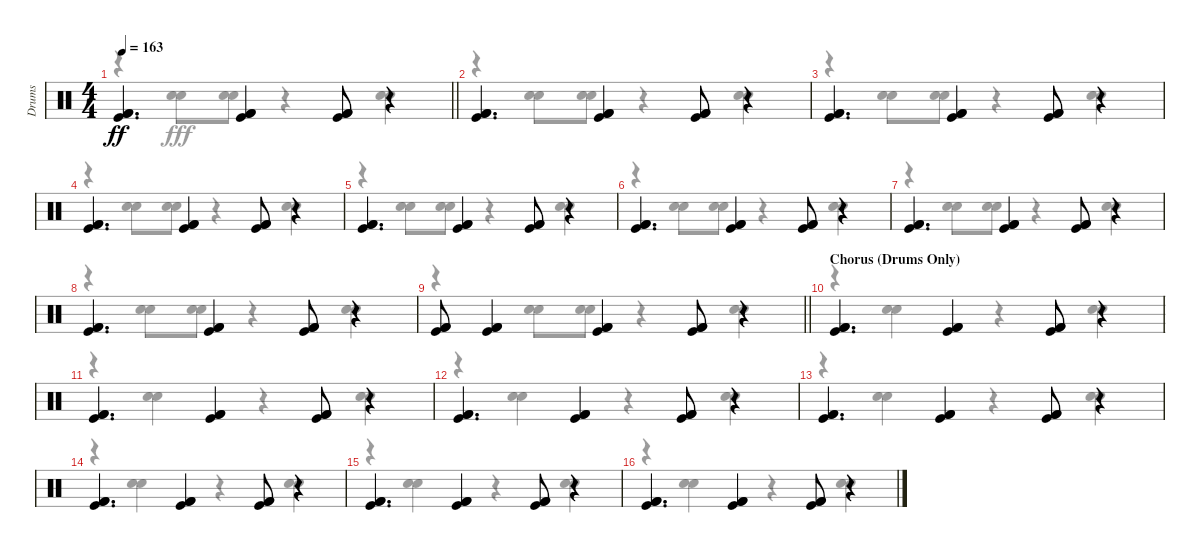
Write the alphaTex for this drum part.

\track ("Drums" "Drums") {instrument percussion}
\staff {score}
\articulation defaults
\voice
\ts (4 4)
\tempo 163
\clef neutral
\barLineRight lightlight
\ks c
("Kick (hit) 2" "Kick (hit) 2" "Kick (hit)").4{d dy ff} ("Kick (hit) 2" "Kick (hit) 2" "Kick (hit)").4 ("Kick (hit) 2" "Kick (hit) 2" "Kick (hit)").8 r.4 |
("Kick (hit) 2" "Kick (hit) 2" "Kick (hit)").4{d} ("Kick (hit) 2" "Kick (hit) 2" "Kick (hit)").4 ("Kick (hit) 2" "Kick (hit) 2" "Kick (hit)").8 r.4 |
("Kick (hit) 2" "Kick (hit) 2" "Kick (hit)").4{d} ("Kick (hit) 2" "Kick (hit) 2" "Kick (hit)").4 ("Kick (hit) 2" "Kick (hit) 2" "Kick (hit)").8 r.4 |
("Kick (hit) 2" "Kick (hit) 2" "Kick (hit)").4{d} ("Kick (hit) 2" "Kick (hit) 2" "Kick (hit)").4 ("Kick (hit) 2" "Kick (hit) 2" "Kick (hit)").8 r.4 |
("Kick (hit) 2" "Kick (hit) 2" "Kick (hit)").4{d} ("Kick (hit) 2" "Kick (hit) 2" "Kick (hit)").4 ("Kick (hit) 2" "Kick (hit) 2" "Kick (hit)").8 r.4 |
("Kick (hit) 2" "Kick (hit) 2" "Kick (hit)").4{d} ("Kick (hit) 2" "Kick (hit) 2" "Kick (hit)").4 ("Kick (hit) 2" "Kick (hit) 2" "Kick (hit)").8 r.4 |
("Kick (hit) 2" "Kick (hit) 2" "Kick (hit)").4{d} ("Kick (hit) 2" "Kick (hit) 2" "Kick (hit)").4 ("Kick (hit) 2" "Kick (hit) 2" "Kick (hit)").8 r.4 |
("Kick (hit) 2" "Kick (hit) 2" "Kick (hit)").4{d} ("Kick (hit) 2" "Kick (hit) 2" "Kick (hit)").4 ("Kick (hit) 2" "Kick (hit) 2" "Kick (hit)").8 r.4 |
\barLineRight lightlight
("Kick (hit) 2" "Kick (hit) 2" "Kick (hit)").8 ("Kick (hit) 2" "Kick (hit) 2" "Kick (hit)").4 ("Kick (hit) 2" "Kick (hit) 2" "Kick (hit)").4 ("Kick (hit) 2" "Kick (hit) 2" "Kick (hit)").8 r.4 |
\section ("" "Chorus (Drums Only)")
("Kick (hit) 2" "Kick (hit) 2" "Kick (hit)").4{d} ("Kick (hit) 2" "Kick (hit) 2" "Kick (hit)").4 ("Kick (hit) 2" "Kick (hit) 2" "Kick (hit)").8 r.4 |
("Kick (hit) 2" "Kick (hit) 2" "Kick (hit)").4{d} ("Kick (hit) 2" "Kick (hit) 2" "Kick (hit)").4 ("Kick (hit) 2" "Kick (hit) 2" "Kick (hit)").8 r.4 |
("Kick (hit) 2" "Kick (hit) 2" "Kick (hit)").4{d} ("Kick (hit) 2" "Kick (hit) 2" "Kick (hit)").4 ("Kick (hit) 2" "Kick (hit) 2" "Kick (hit)").8 r.4 |
("Kick (hit) 2" "Kick (hit) 2" "Kick (hit)").4{d} ("Kick (hit) 2" "Kick (hit) 2" "Kick (hit)").4 ("Kick (hit) 2" "Kick (hit) 2" "Kick (hit)").8 r.4 |
("Kick (hit) 2" "Kick (hit) 2" "Kick (hit)").4{d} ("Kick (hit) 2" "Kick (hit) 2" "Kick (hit)").4 ("Kick (hit) 2" "Kick (hit) 2" "Kick (hit)").8 r.4 |
("Kick (hit) 2" "Kick (hit) 2" "Kick (hit)").4{d} ("Kick (hit) 2" "Kick (hit) 2" "Kick (hit)").4 ("Kick (hit) 2" "Kick (hit) 2" "Kick (hit)").8 r.4 |
("Kick (hit) 2" "Kick (hit) 2" "Kick (hit)").4{d} ("Kick (hit) 2" "Kick (hit) 2" "Kick (hit)").4 ("Kick (hit) 2" "Kick (hit) 2" "Kick (hit)").8 r.4
\voice
\clef neutral
\ottava regular
\simile none
\barLineRight lightlight
\ks c
r.4{dy fff} ("Hand Clap (hit)" "Hand Clap (hit)").8 ("Hand Clap (hit)" "Hand Clap (hit)").8 r.4 ("Hand Clap (hit)" "Hand Clap (hit)").4 |
r.4 ("Hand Clap (hit)" "Hand Clap (hit)").8 ("Hand Clap (hit)" "Hand Clap (hit)").8 r.4 ("Hand Clap (hit)" "Hand Clap (hit)").4 |
r.4 ("Hand Clap (hit)" "Hand Clap (hit)").8 ("Hand Clap (hit)" "Hand Clap (hit)").8 r.4 ("Hand Clap (hit)" "Hand Clap (hit)").4 |
r.4 ("Hand Clap (hit)" "Hand Clap (hit)").8 ("Hand Clap (hit)" "Hand Clap (hit)").8 r.4 ("Hand Clap (hit)" "Hand Clap (hit)").4 |
r.4 ("Hand Clap (hit)" "Hand Clap (hit)").8 ("Hand Clap (hit)" "Hand Clap (hit)").8 r.4 ("Hand Clap (hit)" "Hand Clap (hit)").4 |
r.4 ("Hand Clap (hit)" "Hand Clap (hit)").8 ("Hand Clap (hit)" "Hand Clap (hit)").8 r.4 ("Hand Clap (hit)" "Hand Clap (hit)").4 |
r.4 ("Hand Clap (hit)" "Hand Clap (hit)").8 ("Hand Clap (hit)" "Hand Clap (hit)").8 r.4 ("Hand Clap (hit)" "Hand Clap (hit)").4 |
r.4 ("Hand Clap (hit)" "Hand Clap (hit)").8 ("Hand Clap (hit)" "Hand Clap (hit)").8 r.4 ("Hand Clap (hit)" "Hand Clap (hit)").4 |
\barLineRight lightlight
r.4 ("Hand Clap (hit)" "Hand Clap (hit)").8 ("Hand Clap (hit)" "Hand Clap (hit)").8 r.4 ("Hand Clap (hit)" "Hand Clap (hit)").4 |
r.4 ("Hand Clap (hit)" "Hand Clap (hit)").4 r.4 ("Hand Clap (hit)" "Hand Clap (hit)").4 |
r.4 ("Hand Clap (hit)" "Hand Clap (hit)").4 r.4 ("Hand Clap (hit)" "Hand Clap (hit)").4 |
r.4 ("Hand Clap (hit)" "Hand Clap (hit)").4 r.4 ("Hand Clap (hit)" "Hand Clap (hit)").4 |
r.4 ("Hand Clap (hit)" "Hand Clap (hit)").4 r.4 ("Hand Clap (hit)" "Hand Clap (hit)").4 |
r.4 ("Hand Clap (hit)" "Hand Clap (hit)").4 r.4 ("Hand Clap (hit)" "Hand Clap (hit)").4 |
r.4 ("Hand Clap (hit)" "Hand Clap (hit)").4 r.4 ("Hand Clap (hit)" "Hand Clap (hit)").4 |
r.4 ("Hand Clap (hit)" "Hand Clap (hit)").4 r.4 ("Hand Clap (hit)" "Hand Clap (hit)").4
